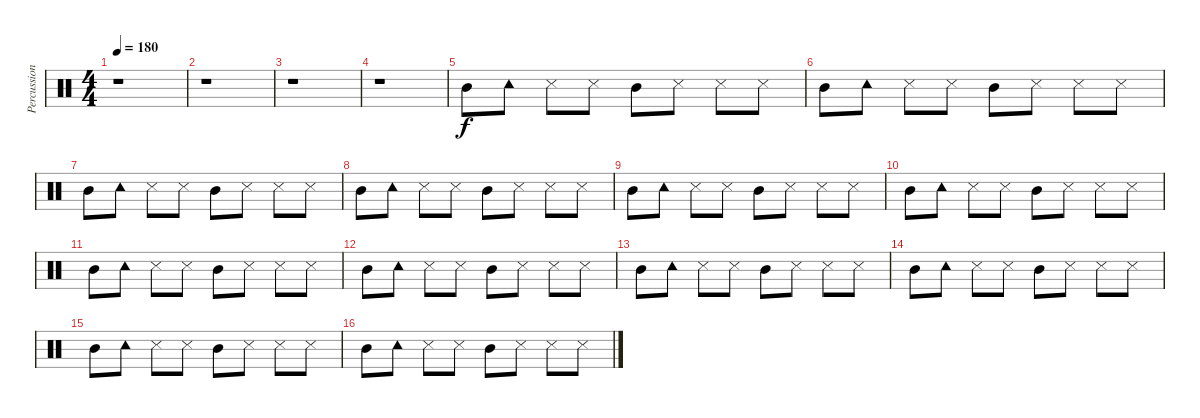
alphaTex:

\track ("Percussions" "Percussion") {instrument percussion}
\staff {score}
\articulation defaults
\ts (4 4)
\tempo 180
\clef neutral
\ks c
r.1{dy f} |
r.1 |
r.1 |
r.1 |
"Mid Tom (hit)".8 "Tambourine (hit)".8 "Snare (side stick) 3".8 "Snare (side stick) 3".8 "Mid Tom (hit)".8 "Snare (side stick) 3".8 "Snare (side stick) 3".8 "Snare (side stick) 3".8 |
"Mid Tom (hit)".8 "Tambourine (hit)".8 "Snare (side stick) 3".8 "Snare (side stick) 3".8 "Mid Tom (hit)".8 "Snare (side stick) 3".8 "Snare (side stick) 3".8 "Snare (side stick) 3".8 |
"Mid Tom (hit)".8 "Tambourine (hit)".8 "Snare (side stick) 3".8 "Snare (side stick) 3".8 "Mid Tom (hit)".8 "Snare (side stick) 3".8 "Snare (side stick) 3".8 "Snare (side stick) 3".8 |
"Mid Tom (hit)".8 "Tambourine (hit)".8 "Snare (side stick) 3".8 "Snare (side stick) 3".8 "Mid Tom (hit)".8 "Snare (side stick) 3".8 "Snare (side stick) 3".8 "Snare (side stick) 3".8 |
"Mid Tom (hit)".8 "Tambourine (hit)".8 "Snare (side stick) 3".8 "Snare (side stick) 3".8 "Mid Tom (hit)".8 "Snare (side stick) 3".8 "Snare (side stick) 3".8 "Snare (side stick) 3".8 |
"Mid Tom (hit)".8 "Tambourine (hit)".8 "Snare (side stick) 3".8 "Snare (side stick) 3".8 "Mid Tom (hit)".8 "Snare (side stick) 3".8 "Snare (side stick) 3".8 "Snare (side stick) 3".8 |
"Mid Tom (hit)".8 "Tambourine (hit)".8 "Snare (side stick) 3".8 "Snare (side stick) 3".8 "Mid Tom (hit)".8 "Snare (side stick) 3".8 "Snare (side stick) 3".8 "Snare (side stick) 3".8 |
"Mid Tom (hit)".8 "Tambourine (hit)".8 "Snare (side stick) 3".8 "Snare (side stick) 3".8 "Mid Tom (hit)".8 "Snare (side stick) 3".8 "Snare (side stick) 3".8 "Snare (side stick) 3".8 |
"Mid Tom (hit)".8 "Tambourine (hit)".8 "Snare (side stick) 3".8 "Snare (side stick) 3".8 "Mid Tom (hit)".8 "Snare (side stick) 3".8 "Snare (side stick) 3".8 "Snare (side stick) 3".8 |
"Mid Tom (hit)".8 "Tambourine (hit)".8 "Snare (side stick) 3".8 "Snare (side stick) 3".8 "Mid Tom (hit)".8 "Snare (side stick) 3".8 "Snare (side stick) 3".8 "Snare (side stick) 3".8 |
"Mid Tom (hit)".8 "Tambourine (hit)".8 "Snare (side stick) 3".8 "Snare (side stick) 3".8 "Mid Tom (hit)".8 "Snare (side stick) 3".8 "Snare (side stick) 3".8 "Snare (side stick) 3".8 |
"Mid Tom (hit)".8 "Tambourine (hit)".8 "Snare (side stick) 3".8 "Snare (side stick) 3".8 "Mid Tom (hit)".8 "Snare (side stick) 3".8 "Snare (side stick) 3".8 "Snare (side stick) 3".8
